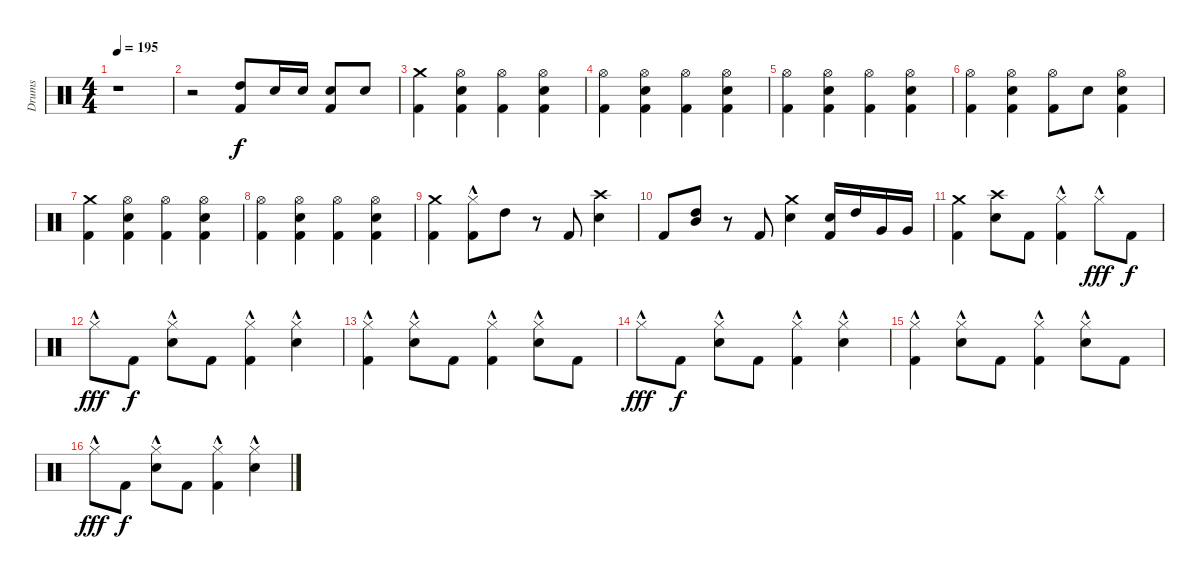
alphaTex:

\track ("Drums" "Drums") {instrument percussion}
\staff {score}
\articulation defaults
\ts (4 4)
\tempo 195
\clef neutral
\ks c
r.1{dy fff} |
r.2 ("High Tom (hit)" "Kick (hit) 2").8{dy f} "Snare (hit) 2".16 "Snare (hit) 2".16 ("Snare (hit) 2" "Kick (hit) 2").8 "Snare (hit) 2".8 |
("Crash medium (hit)" "Kick (hit) 2").4 ("Hi-Hat (open)" "Snare (hit) 2" "Kick (hit) 2").4 ("Hi-Hat (open)" "Kick (hit) 2").4 ("Hi-Hat (open)" "Snare (hit) 2" "Kick (hit) 2").4 |
("Hi-Hat (open)" "Kick (hit) 2").4 ("Hi-Hat (open)" "Snare (hit) 2" "Kick (hit) 2").4 ("Hi-Hat (open)" "Kick (hit) 2").4 ("Hi-Hat (open)" "Snare (hit) 2" "Kick (hit) 2").4 |
("Hi-Hat (open)" "Kick (hit) 2").4 ("Hi-Hat (open)" "Snare (hit) 2" "Kick (hit) 2").4 ("Hi-Hat (open)" "Kick (hit) 2").4 ("Hi-Hat (open)" "Snare (hit) 2" "Kick (hit) 2").4 |
("Hi-Hat (open)" "Kick (hit) 2").4 ("Hi-Hat (open)" "Snare (hit) 2" "Kick (hit) 2").4 ("Hi-Hat (open)" "Kick (hit) 2").8 "Snare (hit) 2".8 ("Hi-Hat (open)" "Snare (hit) 2" "Kick (hit) 2").4 |
("Crash medium (hit)" "Kick (hit) 2").4 ("Hi-Hat (open)" "Snare (hit) 2" "Kick (hit) 2").4 ("Hi-Hat (open)" "Kick (hit) 2").4 ("Hi-Hat (open)" "Snare (hit) 2" "Kick (hit) 2").4 |
("Hi-Hat (open)" "Kick (hit) 2").4 ("Hi-Hat (open)" "Snare (hit) 2" "Kick (hit) 2").4 ("Hi-Hat (open)" "Kick (hit) 2").4 ("Hi-Hat (open)" "Snare (hit) 2" "Kick (hit) 2").4 |
("Crash medium (hit)" "Kick (hit) 2").4 ("Hi-Hat (closed)"{hac} "Kick (hit) 2").8 "High Tom (hit)".8 r.8 "Kick (hit) 2".8 ("Crash high (hit)" "Snare (hit) 2").4 |
"Kick (hit) 2".8 ("High Tom (hit)" "Mid Tom (hit)").8 r.8 "Kick (hit) 2".8 ("Crash medium (hit)" "Snare (hit) 2").4 ("Snare (hit) 2" "Kick (hit) 2").16 "High Tom (hit)".16 "Very Low Tom (hit)".16 "Very Low Tom (hit)".16 |
("Crash medium (hit)" "Kick (hit) 2").4 ("Crash high (hit)" "Snare (hit) 2").8 "Kick (hit) 2".8 ("Hi-Hat (closed)"{hac} "Kick (hit) 2").4 "Hi-Hat (closed)"{hac}.8{dy fff} "Kick (hit) 2".8{dy f} |
"Hi-Hat (closed)"{hac}.8{dy fff} "Kick (hit) 2".8{dy f} ("Hi-Hat (closed)"{hac} "Snare (hit) 2").8 "Kick (hit) 2".8 ("Hi-Hat (closed)"{hac} "Kick (hit) 2").4 ("Hi-Hat (closed)"{hac} "Snare (hit) 2").4 |
("Hi-Hat (closed)"{hac} "Kick (hit) 2").4 ("Hi-Hat (closed)"{hac} "Snare (hit) 2").8 "Kick (hit) 2".8 ("Hi-Hat (closed)"{hac} "Kick (hit) 2").4 ("Hi-Hat (closed)"{hac} "Snare (hit) 2").8 "Kick (hit) 2".8 |
"Hi-Hat (closed)"{hac}.8{dy fff} "Kick (hit) 2".8{dy f} ("Hi-Hat (closed)"{hac} "Snare (hit) 2").8 "Kick (hit) 2".8 ("Hi-Hat (closed)"{hac} "Kick (hit) 2").4 ("Hi-Hat (closed)"{hac} "Snare (hit) 2").4 |
("Hi-Hat (closed)"{hac} "Kick (hit) 2").4 ("Hi-Hat (closed)"{hac} "Snare (hit) 2").8 "Kick (hit) 2".8 ("Hi-Hat (closed)"{hac} "Kick (hit) 2").4 ("Hi-Hat (closed)"{hac} "Snare (hit) 2").8 "Kick (hit) 2".8 |
"Hi-Hat (closed)"{hac}.8{dy fff} "Kick (hit) 2".8{dy f} ("Hi-Hat (closed)"{hac} "Snare (hit) 2").8 "Kick (hit) 2".8 ("Hi-Hat (closed)"{hac} "Kick (hit) 2").4 ("Hi-Hat (closed)"{hac} "Snare (hit) 2").4
